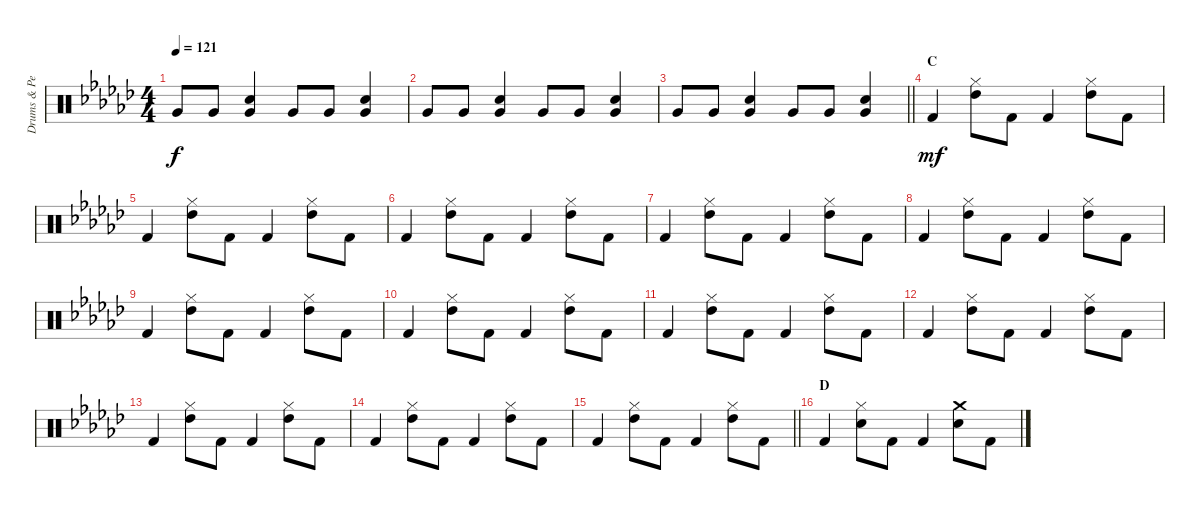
\track ("Drums & Percussion" "Drums & Pe") {instrument percussion bank 98}
\staff {score}
\articulation defaults
\ts (4 4)
\tempo 121
\clef neutral
\ks ebminor "Very Low Tom (hit)".8{dy f} "Very Low Tom (hit)".8
("Snare (hit) 2" "Very Low Tom (hit)").4 "Very Low Tom (hit)".8 "Very Low Tom (hit)".8 ("Snare (hit) 2" "Very Low Tom (hit)").4 |
"Very Low Tom (hit)".8 "Very Low Tom (hit)".8 ("Snare (hit) 2" "Very Low Tom (hit)").4 "Very Low Tom (hit)".8 "Very Low Tom (hit)".8 ("Snare (hit) 2" "Very Low Tom (hit)").4 |
\barLineRight lightlight "Very Low Tom (hit)".8 "Very Low Tom (hit)".8
("Snare (hit) 2" "Very Low Tom (hit)").4 "Very Low Tom (hit)".8 "Very Low Tom (hit)".8 ("Snare (hit) 2" "Very Low Tom (hit)").4 |
\section ("" "C")
"Kick (hit) 2".4{dy mf} ("Hi-Hat (closed)" "High Tom (hit)").8 "Kick (hit) 2".8 "Kick (hit) 2".4 ("Hi-Hat (closed)" "High Tom (hit)").8 "Kick (hit) 2".8 |
"Kick (hit) 2".4 ("Hi-Hat (closed)" "High Tom (hit)").8 "Kick (hit) 2".8 "Kick (hit) 2".4 ("Hi-Hat (closed)" "High Tom (hit)").8 "Kick (hit) 2".8 |
"Kick (hit) 2".4 ("Hi-Hat (closed)" "High Tom (hit)").8 "Kick (hit) 2".8 "Kick (hit) 2".4 ("Hi-Hat (closed)" "High Tom (hit)").8 "Kick (hit) 2".8 |
"Kick (hit) 2".4 ("Hi-Hat (closed)" "High Tom (hit)").8 "Kick (hit) 2".8 "Kick (hit) 2".4 ("Hi-Hat (closed)" "High Tom (hit)").8 "Kick (hit) 2".8 |
"Kick (hit) 2".4 ("Hi-Hat (closed)" "High Tom (hit)").8 "Kick (hit) 2".8 "Kick (hit) 2".4 ("Hi-Hat (closed)" "High Tom (hit)").8 "Kick (hit) 2".8 |
"Kick (hit) 2".4 ("Hi-Hat (closed)" "High Tom (hit)").8 "Kick (hit) 2".8 "Kick (hit) 2".4 ("Hi-Hat (closed)" "High Tom (hit)").8 "Kick (hit) 2".8 |
"Kick (hit) 2".4 ("Hi-Hat (closed)" "High Tom (hit)").8 "Kick (hit) 2".8 "Kick (hit) 2".4 ("Hi-Hat (closed)" "High Tom (hit)").8 "Kick (hit) 2".8 |
"Kick (hit) 2".4 ("Hi-Hat (closed)" "High Tom (hit)").8 "Kick (hit) 2".8 "Kick (hit) 2".4 ("Hi-Hat (closed)" "High Tom (hit)").8 "Kick (hit) 2".8 |
"Kick (hit) 2".4 ("Hi-Hat (closed)" "High Tom (hit)").8 "Kick (hit) 2".8 "Kick (hit) 2".4 ("Hi-Hat (closed)" "High Tom (hit)").8 "Kick (hit) 2".8 |
"Kick (hit) 2".4 ("Hi-Hat (closed)" "High Tom (hit)").8 "Kick (hit) 2".8 "Kick (hit) 2".4 ("Hi-Hat (closed)" "High Tom (hit)").8 "Kick (hit) 2".8 |
"Kick (hit) 2".4 ("Hi-Hat (closed)" "High Tom (hit)").8 "Kick (hit) 2".8 "Kick (hit) 2".4 ("Hi-Hat (closed)" "High Tom (hit)").8 "Kick (hit) 2".8 |
\barLineRight lightlight "Kick (hit) 2".4
("Hi-Hat (closed)" "High Tom (hit)").8 "Kick (hit) 2".8 "Kick (hit) 2".4 ("Hi-Hat (closed)" "High Tom (hit)").8 "Kick (hit) 2".8 |
\section ("" "D")
"Kick (hit) 2".4 ("Hi-Hat (closed)" "Snare (hit) 2").8 "Kick (hit) 2".8 "Kick (hit) 2".4 ("Crash medium (hit)" "Snare (hit) 2").8 "Kick (hit) 2".8
